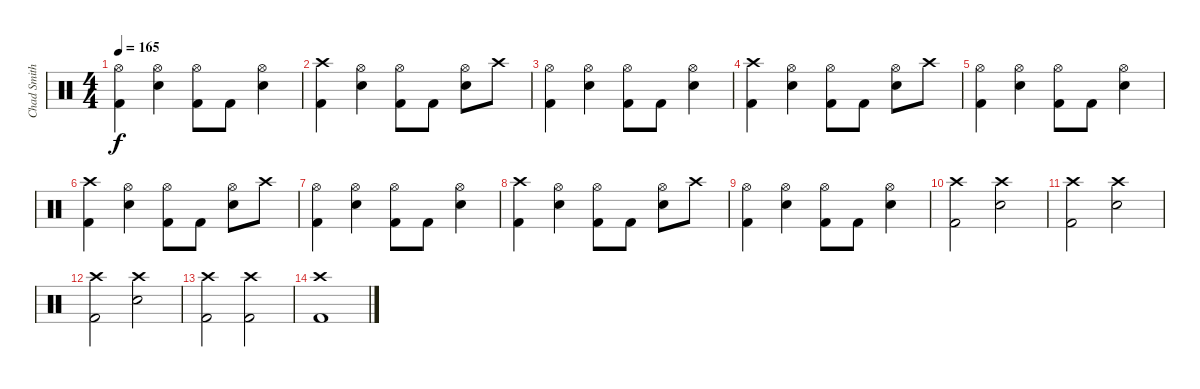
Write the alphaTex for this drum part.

\track ("Chad Smith" "Chad Smith") {instrument percussion}
\staff {score}
\articulation defaults
\ts (4 4)
\tempo 165
\clef neutral
\ks c
("Hi-Hat (open)" "Kick (hit) 2").4{dy f} ("Hi-Hat (open)" "Snare (hit) 2").4 ("Hi-Hat (open)" "Kick (hit) 2").8 "Kick (hit) 2".8 ("Hi-Hat (open)" "Snare (hit) 2").4 |
("Crash high (hit)" "Kick (hit) 2").4 ("Hi-Hat (open)" "Snare (hit) 2").4 ("Hi-Hat (open)" "Kick (hit) 2").8 "Kick (hit) 2".8 ("Hi-Hat (open)" "Snare (hit) 2").8 "Crash high (hit)".8 |
("Hi-Hat (open)" "Kick (hit) 2").4 ("Hi-Hat (open)" "Snare (hit) 2").4 ("Hi-Hat (open)" "Kick (hit) 2").8 "Kick (hit) 2".8 ("Hi-Hat (open)" "Snare (hit) 2").4 |
("Crash high (hit)" "Kick (hit) 2").4 ("Hi-Hat (open)" "Snare (hit) 2").4 ("Hi-Hat (open)" "Kick (hit) 2").8 "Kick (hit) 2".8 ("Hi-Hat (open)" "Snare (hit) 2").8 "Crash high (hit)".8 |
("Hi-Hat (open)" "Kick (hit) 2").4 ("Hi-Hat (open)" "Snare (hit) 2").4 ("Hi-Hat (open)" "Kick (hit) 2").8 "Kick (hit) 2".8 ("Hi-Hat (open)" "Snare (hit) 2").4 |
("Crash high (hit)" "Kick (hit) 2").4 ("Hi-Hat (open)" "Snare (hit) 2").4 ("Hi-Hat (open)" "Kick (hit) 2").8 "Kick (hit) 2".8 ("Hi-Hat (open)" "Snare (hit) 2").8 "Crash high (hit)".8 |
("Hi-Hat (open)" "Kick (hit) 2").4 ("Hi-Hat (open)" "Snare (hit) 2").4 ("Hi-Hat (open)" "Kick (hit) 2").8 "Kick (hit) 2".8 ("Hi-Hat (open)" "Snare (hit) 2").4 |
("Crash high (hit)" "Kick (hit) 2").4 ("Hi-Hat (open)" "Snare (hit) 2").4 ("Hi-Hat (open)" "Kick (hit) 2").8 "Kick (hit) 2".8 ("Hi-Hat (open)" "Snare (hit) 2").8 "Crash high (hit)".8 |
("Hi-Hat (open)" "Kick (hit) 2").4 ("Hi-Hat (open)" "Snare (hit) 2").4 ("Hi-Hat (open)" "Kick (hit) 2").8 "Kick (hit) 2".8 ("Hi-Hat (open)" "Snare (hit) 2").4 |
("Crash high (hit)" "Kick (hit) 2").2 ("Crash high (hit)" "Snare (hit) 2").2 |
("Crash high (hit)" "Kick (hit) 2").2 ("Crash high (hit)" "Snare (hit) 2").2 |
("Crash high (hit)" "Kick (hit) 2").2 ("Crash high (hit)" "Snare (hit) 2").2 |
("Crash high (hit)" "Kick (hit) 2").2 ("Crash high (hit)" "Kick (hit) 2").2 |
("Crash high (hit)" "Kick (hit) 2").1
